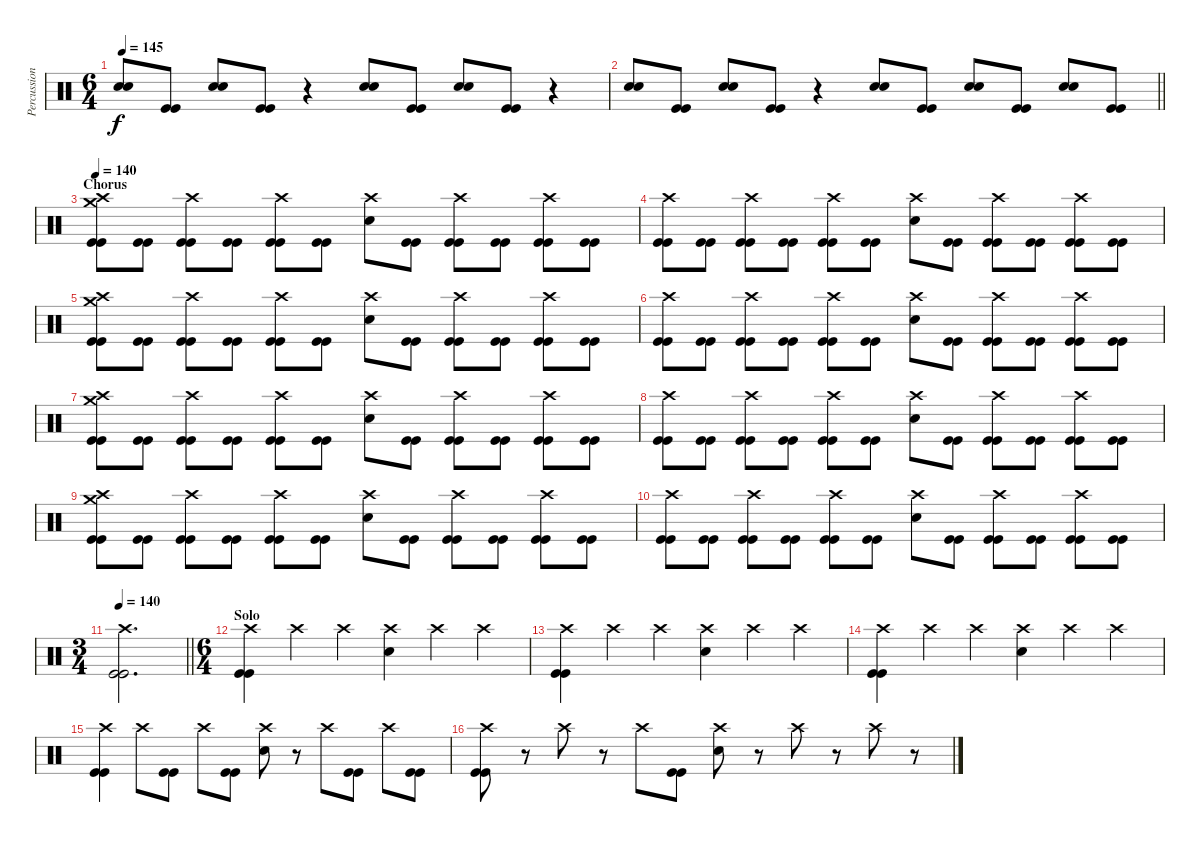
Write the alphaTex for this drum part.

\track ("Percussion" "Percussion") {instrument percussion}
\staff {score}
\articulation defaults
\ts (6 4)
\tempo 145
\clef neutral
\ks c
("Snare (hit) 2" "Snare (hit) 2").8{dy f} ("Kick (hit)" "Kick (hit)").8 ("Snare (hit) 2" "Snare (hit) 2").8 ("Kick (hit)" "Kick (hit)").8 r.4 ("Snare (hit) 2" "Snare (hit) 2").8 ("Kick (hit)" "Kick (hit)").8 ("Snare (hit) 2" "Snare (hit) 2").8 ("Kick (hit)" "Kick (hit)").8 r.4 |
\barLineRight lightlight
("Snare (hit) 2" "Snare (hit) 2").8 ("Kick (hit)" "Kick (hit)").8 ("Snare (hit) 2" "Snare (hit) 2").8 ("Kick (hit)" "Kick (hit)").8 r.4 ("Snare (hit) 2" "Snare (hit) 2").8 ("Kick (hit)" "Kick (hit)").8 ("Snare (hit) 2" "Snare (hit) 2").8 ("Kick (hit)" "Kick (hit)").8 ("Snare (hit) 2" "Snare (hit) 2").8 ("Kick (hit)" "Kick (hit)").8 |
\section ("" "Chorus")
\tempo 140
("Crash high (hit)" "Kick (hit)" "Kick (hit)" "Crash medium (hit)").8 ("Kick (hit)" "Kick (hit)").8 ("Crash high (hit)" "Kick (hit)" "Kick (hit)").8 ("Kick (hit)" "Kick (hit)").8 ("Crash high (hit)" "Kick (hit)" "Kick (hit)").8 ("Kick (hit)" "Kick (hit)").8 ("Crash high (hit)" "Snare (hit) 2").8 ("Kick (hit)" "Kick (hit)").8 ("Crash high (hit)" "Kick (hit)" "Kick (hit)").8 ("Kick (hit)" "Kick (hit)").8 ("Crash high (hit)" "Kick (hit)" "Kick (hit)").8 ("Kick (hit)" "Kick (hit)").8 |
("Crash high (hit)" "Kick (hit)" "Kick (hit)").8 ("Kick (hit)" "Kick (hit)").8 ("Crash high (hit)" "Kick (hit)" "Kick (hit)").8 ("Kick (hit)" "Kick (hit)").8 ("Crash high (hit)" "Kick (hit)" "Kick (hit)").8 ("Kick (hit)" "Kick (hit)").8 ("Crash high (hit)" "Snare (hit) 2").8 ("Kick (hit)" "Kick (hit)").8 ("Crash high (hit)" "Kick (hit)" "Kick (hit)").8 ("Kick (hit)" "Kick (hit)").8 ("Crash high (hit)" "Kick (hit)" "Kick (hit)").8 ("Kick (hit)" "Kick (hit)").8 |
("Crash high (hit)" "Kick (hit)" "Kick (hit)" "Crash medium (hit)").8 ("Kick (hit)" "Kick (hit)").8 ("Crash high (hit)" "Kick (hit)" "Kick (hit)").8 ("Kick (hit)" "Kick (hit)").8 ("Crash high (hit)" "Kick (hit)" "Kick (hit)").8 ("Kick (hit)" "Kick (hit)").8 ("Crash high (hit)" "Snare (hit) 2").8 ("Kick (hit)" "Kick (hit)").8 ("Crash high (hit)" "Kick (hit)" "Kick (hit)").8 ("Kick (hit)" "Kick (hit)").8 ("Crash high (hit)" "Kick (hit)" "Kick (hit)").8 ("Kick (hit)" "Kick (hit)").8 |
("Crash high (hit)" "Kick (hit)" "Kick (hit)").8 ("Kick (hit)" "Kick (hit)").8 ("Crash high (hit)" "Kick (hit)" "Kick (hit)").8 ("Kick (hit)" "Kick (hit)").8 ("Crash high (hit)" "Kick (hit)" "Kick (hit)").8 ("Kick (hit)" "Kick (hit)").8 ("Crash high (hit)" "Snare (hit) 2").8 ("Kick (hit)" "Kick (hit)").8 ("Crash high (hit)" "Kick (hit)" "Kick (hit)").8 ("Kick (hit)" "Kick (hit)").8 ("Crash high (hit)" "Kick (hit)" "Kick (hit)").8 ("Kick (hit)" "Kick (hit)").8 |
("Crash high (hit)" "Kick (hit)" "Kick (hit)" "Crash medium (hit)").8 ("Kick (hit)" "Kick (hit)").8 ("Crash high (hit)" "Kick (hit)" "Kick (hit)").8 ("Kick (hit)" "Kick (hit)").8 ("Crash high (hit)" "Kick (hit)" "Kick (hit)").8 ("Kick (hit)" "Kick (hit)").8 ("Crash high (hit)" "Snare (hit) 2").8 ("Kick (hit)" "Kick (hit)").8 ("Crash high (hit)" "Kick (hit)" "Kick (hit)").8 ("Kick (hit)" "Kick (hit)").8 ("Crash high (hit)" "Kick (hit)" "Kick (hit)").8 ("Kick (hit)" "Kick (hit)").8 |
("Crash high (hit)" "Kick (hit)" "Kick (hit)").8 ("Kick (hit)" "Kick (hit)").8 ("Crash high (hit)" "Kick (hit)" "Kick (hit)").8 ("Kick (hit)" "Kick (hit)").8 ("Crash high (hit)" "Kick (hit)" "Kick (hit)").8 ("Kick (hit)" "Kick (hit)").8 ("Crash high (hit)" "Snare (hit) 2").8 ("Kick (hit)" "Kick (hit)").8 ("Crash high (hit)" "Kick (hit)" "Kick (hit)").8 ("Kick (hit)" "Kick (hit)").8 ("Crash high (hit)" "Kick (hit)" "Kick (hit)").8 ("Kick (hit)" "Kick (hit)").8 |
("Crash high (hit)" "Kick (hit)" "Kick (hit)" "Crash medium (hit)").8 ("Kick (hit)" "Kick (hit)").8 ("Crash high (hit)" "Kick (hit)" "Kick (hit)").8 ("Kick (hit)" "Kick (hit)").8 ("Crash high (hit)" "Kick (hit)" "Kick (hit)").8 ("Kick (hit)" "Kick (hit)").8 ("Crash high (hit)" "Snare (hit) 2").8 ("Kick (hit)" "Kick (hit)").8 ("Crash high (hit)" "Kick (hit)" "Kick (hit)").8 ("Kick (hit)" "Kick (hit)").8 ("Crash high (hit)" "Kick (hit)" "Kick (hit)").8 ("Kick (hit)" "Kick (hit)").8 |
("Crash high (hit)" "Kick (hit)" "Kick (hit)").8 ("Kick (hit)" "Kick (hit)").8 ("Crash high (hit)" "Kick (hit)" "Kick (hit)").8 ("Kick (hit)" "Kick (hit)").8 ("Crash high (hit)" "Kick (hit)" "Kick (hit)").8 ("Kick (hit)" "Kick (hit)").8 ("Crash high (hit)" "Snare (hit) 2").8 ("Kick (hit)" "Kick (hit)").8 ("Crash high (hit)" "Kick (hit)" "Kick (hit)").8 ("Kick (hit)" "Kick (hit)").8 ("Crash high (hit)" "Kick (hit)" "Kick (hit)").8 ("Kick (hit)" "Kick (hit)").8 |
\ts (3 4)
\tempo 140
\barLineRight lightlight
("Crash high (hit)" "Kick (hit)" "Kick (hit)").2{d} |
\ts (6 4)
\section ("" "Solo")
("Crash high (hit)" "Kick (hit)" "Kick (hit)").4 "Crash high (hit)".4 "Crash high (hit)".4 ("Crash high (hit)" "Snare (hit) 2").4 "Crash high (hit)".4 "Crash high (hit)".4 |
("Crash high (hit)" "Kick (hit)" "Kick (hit)").4 "Crash high (hit)".4 "Crash high (hit)".4 ("Crash high (hit)" "Snare (hit) 2").4 "Crash high (hit)".4 "Crash high (hit)".4 |
("Crash high (hit)" "Kick (hit)" "Kick (hit)").4 "Crash high (hit)".4 "Crash high (hit)".4 ("Crash high (hit)" "Snare (hit) 2").4 "Crash high (hit)".4 "Crash high (hit)".4 |
("Crash high (hit)" "Kick (hit)" "Kick (hit)").4 "Crash high (hit)".8 ("Kick (hit)" "Kick (hit)").8 "Crash high (hit)".8 ("Kick (hit)" "Kick (hit)").8 ("Crash high (hit)" "Snare (hit) 2").8 r.8 "Crash high (hit)".8 ("Kick (hit)" "Kick (hit)").8 "Crash high (hit)".8 ("Kick (hit)" "Kick (hit)").8 |
("Crash high (hit)" "Kick (hit)" "Kick (hit)").8 r.8 "Crash high (hit)".8 r.8 "Crash high (hit)".8 ("Kick (hit)" "Kick (hit)").8 ("Crash high (hit)" "Snare (hit) 2").8 r.8 "Crash high (hit)".8 r.8 "Crash high (hit)".8 r.8
